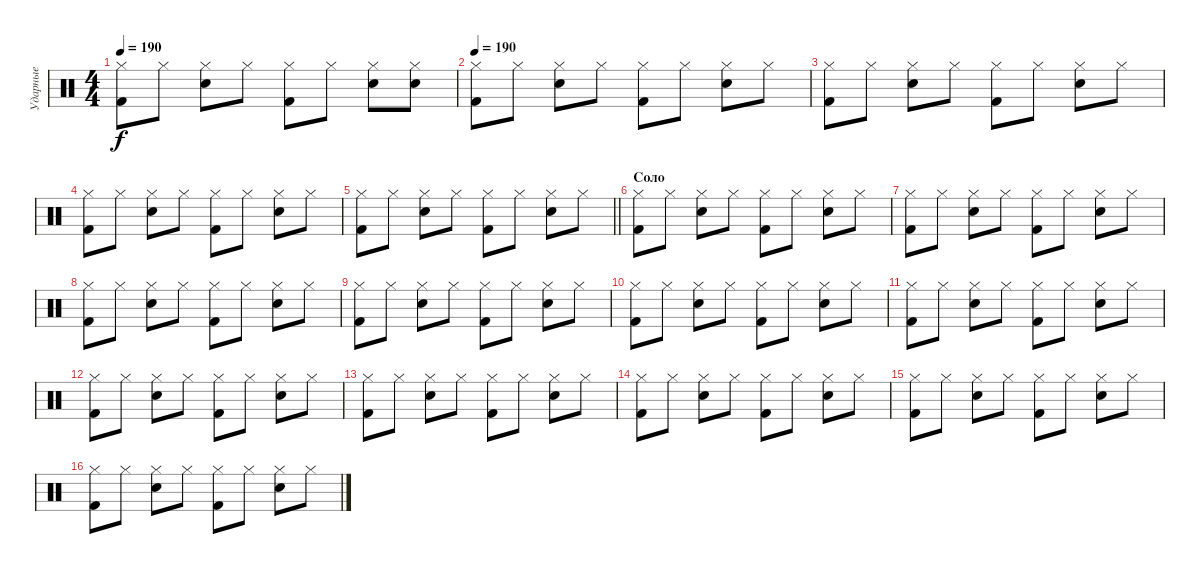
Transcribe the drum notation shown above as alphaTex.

\track ("Ударные" "Ударные") {instrument percussion}
\staff {score}
\articulation defaults
\ts (4 4)
\tempo 190
\clef neutral
\ks c
("Hi-Hat (closed)" "Kick (hit) 2").8{dy f} "Hi-Hat (closed)".8 ("Hi-Hat (closed)" "Snare (hit) 2").8 "Hi-Hat (closed)".8 ("Hi-Hat (closed)" "Kick (hit) 2").8 "Hi-Hat (closed)".8 ("Hi-Hat (closed)" "Snare (hit) 2").8 ("Hi-Hat (closed)" "Snare (hit) 2").8 |
\tempo 190
("Hi-Hat (closed)" "Kick (hit) 2").8 "Hi-Hat (closed)".8 ("Hi-Hat (closed)" "Snare (hit) 2").8 "Hi-Hat (closed)".8 ("Hi-Hat (closed)" "Kick (hit) 2").8 "Hi-Hat (closed)".8 ("Hi-Hat (closed)" "Snare (hit) 2").8 "Hi-Hat (closed)".8 |
("Hi-Hat (closed)" "Kick (hit) 2").8 "Hi-Hat (closed)".8 ("Hi-Hat (closed)" "Snare (hit) 2").8 "Hi-Hat (closed)".8 ("Hi-Hat (closed)" "Kick (hit) 2").8 "Hi-Hat (closed)".8 ("Hi-Hat (closed)" "Snare (hit) 2").8 "Hi-Hat (closed)".8 |
("Hi-Hat (closed)" "Kick (hit) 2").8 "Hi-Hat (closed)".8 ("Hi-Hat (closed)" "Snare (hit) 2").8 "Hi-Hat (closed)".8 ("Hi-Hat (closed)" "Kick (hit) 2").8 "Hi-Hat (closed)".8 ("Hi-Hat (closed)" "Snare (hit) 2").8 "Hi-Hat (closed)".8 |
\barLineRight lightlight
("Hi-Hat (closed)" "Kick (hit) 2").8 "Hi-Hat (closed)".8 ("Hi-Hat (closed)" "Snare (hit) 2").8 "Hi-Hat (closed)".8 ("Hi-Hat (closed)" "Kick (hit) 2").8 "Hi-Hat (closed)".8 ("Hi-Hat (closed)" "Snare (hit) 2").8 "Hi-Hat (closed)".8 |
\section ("" "Соло")
("Hi-Hat (closed)" "Kick (hit) 2").8 "Hi-Hat (closed)".8 ("Hi-Hat (closed)" "Snare (hit) 2").8 "Hi-Hat (closed)".8 ("Hi-Hat (closed)" "Kick (hit) 2").8 "Hi-Hat (closed)".8 ("Hi-Hat (closed)" "Snare (hit) 2").8 "Hi-Hat (closed)".8 |
("Hi-Hat (closed)" "Kick (hit) 2").8 "Hi-Hat (closed)".8 ("Hi-Hat (closed)" "Snare (hit) 2").8 "Hi-Hat (closed)".8 ("Hi-Hat (closed)" "Kick (hit) 2").8 "Hi-Hat (closed)".8 ("Hi-Hat (closed)" "Snare (hit) 2").8 "Hi-Hat (closed)".8 |
("Hi-Hat (closed)" "Kick (hit) 2").8 "Hi-Hat (closed)".8 ("Hi-Hat (closed)" "Snare (hit) 2").8 "Hi-Hat (closed)".8 ("Hi-Hat (closed)" "Kick (hit) 2").8 "Hi-Hat (closed)".8 ("Hi-Hat (closed)" "Snare (hit) 2").8 "Hi-Hat (closed)".8 |
("Hi-Hat (closed)" "Kick (hit) 2").8 "Hi-Hat (closed)".8 ("Hi-Hat (closed)" "Snare (hit) 2").8 "Hi-Hat (closed)".8 ("Hi-Hat (closed)" "Kick (hit) 2").8 "Hi-Hat (closed)".8 ("Hi-Hat (closed)" "Snare (hit) 2").8 "Hi-Hat (closed)".8 |
("Hi-Hat (closed)" "Kick (hit) 2").8 "Hi-Hat (closed)".8 ("Hi-Hat (closed)" "Snare (hit) 2").8 "Hi-Hat (closed)".8 ("Hi-Hat (closed)" "Kick (hit) 2").8 "Hi-Hat (closed)".8 ("Hi-Hat (closed)" "Snare (hit) 2").8 "Hi-Hat (closed)".8 |
("Hi-Hat (closed)" "Kick (hit) 2").8 "Hi-Hat (closed)".8 ("Hi-Hat (closed)" "Snare (hit) 2").8 "Hi-Hat (closed)".8 ("Hi-Hat (closed)" "Kick (hit) 2").8 "Hi-Hat (closed)".8 ("Hi-Hat (closed)" "Snare (hit) 2").8 "Hi-Hat (closed)".8 |
("Hi-Hat (closed)" "Kick (hit) 2").8 "Hi-Hat (closed)".8 ("Hi-Hat (closed)" "Snare (hit) 2").8 "Hi-Hat (closed)".8 ("Hi-Hat (closed)" "Kick (hit) 2").8 "Hi-Hat (closed)".8 ("Hi-Hat (closed)" "Snare (hit) 2").8 "Hi-Hat (closed)".8 |
("Hi-Hat (closed)" "Kick (hit) 2").8 "Hi-Hat (closed)".8 ("Hi-Hat (closed)" "Snare (hit) 2").8 "Hi-Hat (closed)".8 ("Hi-Hat (closed)" "Kick (hit) 2").8 "Hi-Hat (closed)".8 ("Hi-Hat (closed)" "Snare (hit) 2").8 "Hi-Hat (closed)".8 |
("Hi-Hat (closed)" "Kick (hit) 2").8 "Hi-Hat (closed)".8 ("Hi-Hat (closed)" "Snare (hit) 2").8 "Hi-Hat (closed)".8 ("Hi-Hat (closed)" "Kick (hit) 2").8 "Hi-Hat (closed)".8 ("Hi-Hat (closed)" "Snare (hit) 2").8 "Hi-Hat (closed)".8 |
("Hi-Hat (closed)" "Kick (hit) 2").8 "Hi-Hat (closed)".8 ("Hi-Hat (closed)" "Snare (hit) 2").8 "Hi-Hat (closed)".8 ("Hi-Hat (closed)" "Kick (hit) 2").8 "Hi-Hat (closed)".8 ("Hi-Hat (closed)" "Snare (hit) 2").8 "Hi-Hat (closed)".8 |
("Hi-Hat (closed)" "Kick (hit) 2").8 "Hi-Hat (closed)".8 ("Hi-Hat (closed)" "Snare (hit) 2").8 "Hi-Hat (closed)".8 ("Hi-Hat (closed)" "Kick (hit) 2").8 "Hi-Hat (closed)".8 ("Hi-Hat (closed)" "Snare (hit) 2").8 "Hi-Hat (closed)".8
